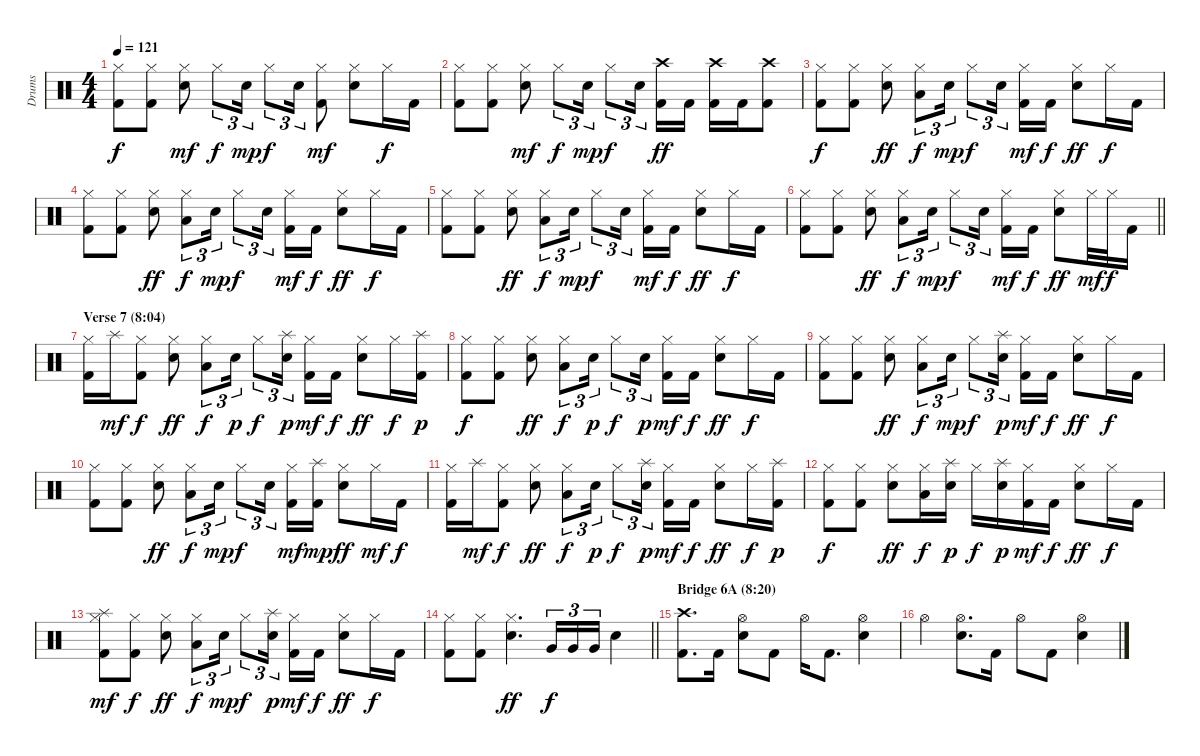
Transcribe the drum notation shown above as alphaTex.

\track ("Drums" "Drums") {instrument percussion}
\staff {score}
\articulation defaults
\ts (4 4)
\tempo 121
\clef neutral
\ks c
("Hi-Hat (closed)" "Kick (hit) 2").8{dy f} ("Hi-Hat (closed)" "Kick (hit) 2").8 ("Hi-Hat (closed)" "Electric Snare (hit)").8{dy mf} "Hi-Hat (closed)".8{tu (3 2) dy f} "Electric Snare (hit)".16{tu (3 2) dy mp} "Hi-Hat (closed)".8{tu (3 2) dy f} "Electric Snare (hit)".16{tu (3 2)} ("Hi-Hat (closed)" "Kick (hit) 2").8{dy mf} ("Hi-Hat (closed)" "Electric Snare (hit)").8 "Hi-Hat (closed)".16{dy f} "Kick (hit) 2".16 |
("Hi-Hat (closed)" "Kick (hit) 2").8 ("Hi-Hat (closed)" "Kick (hit) 2").8 ("Hi-Hat (closed)" "Electric Snare (hit)").8{dy mf} "Hi-Hat (closed)".8{tu (3 2) dy f} "Electric Snare (hit)".16{tu (3 2) dy mp} "Hi-Hat (closed)".8{tu (3 2) dy f} "Electric Snare (hit)".16{tu (3 2) beam splitsecondary} ("Crash high (hit)" "Kick (hit) 2").16{dy ff volume 16} "Kick (hit) 2".16 ("Crash high (hit)" "Kick (hit) 2").16 "Kick (hit) 2".16 ("Crash high (hit)" "Kick (hit) 2").8 |
("Hi-Hat (closed)" "Kick (hit) 2").8{dy f volume 8} ("Hi-Hat (closed)" "Kick (hit) 2").8 ("Hi-Hat (closed)" "Electric Snare (hit)").8{dy ff} ("Hi-Hat (closed)" "Low Tom (hit)").8{tu (3 2) dy f} "Electric Snare (hit)".16{tu (3 2) dy mp} "Hi-Hat (closed)".8{tu (3 2) dy f} "Electric Snare (hit)".16{tu (3 2) beam splitsecondary} ("Hi-Hat (closed)" "Kick (hit) 2").16{dy mf} "Kick (hit) 2".16{dy f} ("Hi-Hat (closed)" "Electric Snare (hit)").8{dy ff} "Hi-Hat (closed)".16{dy f} "Kick (hit) 2".16 |
("Hi-Hat (closed)" "Kick (hit) 2").8 ("Hi-Hat (closed)" "Kick (hit) 2").8 ("Hi-Hat (closed)" "Electric Snare (hit)").8{dy ff} ("Hi-Hat (closed)" "Low Tom (hit)").8{tu (3 2) dy f} "Electric Snare (hit)".16{tu (3 2) dy mp} "Hi-Hat (closed)".8{tu (3 2) dy f} "Electric Snare (hit)".16{tu (3 2) beam splitsecondary} ("Hi-Hat (closed)" "Kick (hit) 2").16{dy mf} "Kick (hit) 2".16{dy f} ("Hi-Hat (closed)" "Electric Snare (hit)").8{dy ff} "Hi-Hat (closed)".16{dy f} "Kick (hit) 2".16 |
("Hi-Hat (closed)" "Kick (hit) 2").8 ("Hi-Hat (closed)" "Kick (hit) 2").8 ("Hi-Hat (closed)" "Electric Snare (hit)").8{dy ff} ("Hi-Hat (closed)" "Low Tom (hit)").8{tu (3 2) dy f} "Electric Snare (hit)".16{tu (3 2) dy mp} "Hi-Hat (closed)".8{tu (3 2) dy f} "Electric Snare (hit)".16{tu (3 2) beam splitsecondary} ("Hi-Hat (closed)" "Kick (hit) 2").16{dy mf} "Kick (hit) 2".16{dy f} ("Hi-Hat (closed)" "Electric Snare (hit)").8{dy ff} "Hi-Hat (closed)".16{dy f} "Kick (hit) 2".16 |
\barLineRight lightlight
("Hi-Hat (closed)" "Kick (hit) 2").8 ("Hi-Hat (closed)" "Kick (hit) 2").8 ("Hi-Hat (closed)" "Electric Snare (hit)").8{dy ff} ("Hi-Hat (closed)" "Low Tom (hit)").8{tu (3 2) dy f} "Electric Snare (hit)".16{tu (3 2) dy mp} "Hi-Hat (closed)".8{tu (3 2) dy f} "Electric Snare (hit)".16{tu (3 2) beam splitsecondary} ("Hi-Hat (closed)" "Kick (hit) 2").16{dy mf} "Kick (hit) 2".16{dy f} ("Hi-Hat (closed)" "Electric Snare (hit)").8{dy ff} "Hi-Hat (closed)".32{dy mf} "Hi-Hat (closed)".32{dy f} "Kick (hit) 2".16 |
\section ("" "Verse 7 (8:04)")
("Hi-Hat (closed)" "Kick (hit) 2").16 "Splash (hit)".16{dy mf} ("Hi-Hat (closed)" "Kick (hit) 2").8{dy f} ("Hi-Hat (closed)" "Electric Snare (hit)").8{dy ff} ("Hi-Hat (closed)" "Low Tom (hit)").8{tu (3 2) dy f} "Electric Snare (hit)".16{tu (3 2) dy p} "Hi-Hat (closed)".8{tu (3 2) dy f} ("Splash (hit)" "Electric Snare (hit)").16{tu (3 2) dy p beam splitsecondary} ("Hi-Hat (closed)" "Kick (hit) 2").16{dy mf} "Kick (hit) 2".16{dy f} ("Hi-Hat (closed)" "Electric Snare (hit)").8{dy ff} "Hi-Hat (closed)".16{dy f} ("Splash (hit)" "Kick (hit) 2").16{dy p} |
("Hi-Hat (closed)" "Kick (hit) 2").8{dy f} ("Hi-Hat (closed)" "Kick (hit) 2").8 ("Hi-Hat (closed)" "Electric Snare (hit)").8{dy ff} ("Hi-Hat (closed)" "Low Tom (hit)").8{tu (3 2) dy f} "Electric Snare (hit)".16{tu (3 2) dy p} "Hi-Hat (closed)".8{tu (3 2) dy f} "Electric Snare (hit)".16{tu (3 2) dy p beam splitsecondary} ("Hi-Hat (closed)" "Kick (hit) 2").16{dy mf} "Kick (hit) 2".16{dy f} ("Hi-Hat (closed)" "Electric Snare (hit)").8{dy ff} "Hi-Hat (closed)".16{dy f} "Kick (hit) 2".16 |
("Hi-Hat (closed)" "Kick (hit) 2").8 ("Hi-Hat (closed)" "Kick (hit) 2").8 ("Hi-Hat (closed)" "Electric Snare (hit)").8{dy ff} ("Hi-Hat (closed)" "Low Tom (hit)").8{tu (3 2) dy f} "Electric Snare (hit)".16{tu (3 2) dy mp} "Hi-Hat (closed)".8{tu (3 2) dy f} ("Splash (hit)" "Electric Snare (hit)").16{tu (3 2) dy p beam splitsecondary} ("Hi-Hat (closed)" "Kick (hit) 2").16{dy mf} "Kick (hit) 2".16{dy f} ("Hi-Hat (closed)" "Electric Snare (hit)").8{dy ff} "Hi-Hat (closed)".16{dy f} "Kick (hit) 2".16 |
("Hi-Hat (closed)" "Kick (hit) 2").8 ("Hi-Hat (closed)" "Kick (hit) 2").8 ("Hi-Hat (closed)" "Electric Snare (hit)").8{dy ff} ("Hi-Hat (closed)" "Low Tom (hit)").8{tu (3 2) dy f} "Electric Snare (hit)".16{tu (3 2) dy mp} "Hi-Hat (closed)".8{tu (3 2) dy f} "Electric Snare (hit)".16{tu (3 2) beam splitsecondary} ("Hi-Hat (closed)" "Kick (hit) 2").16{dy mf} ("Splash (hit)" "Kick (hit) 2").16{dy mp} ("Hi-Hat (closed)" "Electric Snare (hit)").8{dy ff} "Hi-Hat (closed)".16{dy mf} "Kick (hit) 2".16{dy f} |
("Hi-Hat (closed)" "Kick (hit) 2").16 "Splash (hit)".16{dy mf} ("Hi-Hat (closed)" "Kick (hit) 2").8{dy f} ("Hi-Hat (closed)" "Electric Snare (hit)").8{dy ff} ("Hi-Hat (closed)" "Low Tom (hit)").8{tu (3 2) dy f} "Electric Snare (hit)".16{tu (3 2) dy p} "Hi-Hat (closed)".8{tu (3 2) dy f} ("Splash (hit)" "Electric Snare (hit)").16{tu (3 2) dy p beam splitsecondary} ("Hi-Hat (closed)" "Kick (hit) 2").16{dy mf} "Kick (hit) 2".16{dy f} ("Hi-Hat (closed)" "Electric Snare (hit)").8{dy ff} "Hi-Hat (closed)".16{dy f} ("Splash (hit)" "Kick (hit) 2").16{dy p} |
("Hi-Hat (closed)" "Kick (hit) 2").8{dy f} ("Hi-Hat (closed)" "Kick (hit) 2").8 ("Hi-Hat (closed)" "Electric Snare (hit)").8{dy ff} ("Hi-Hat (closed)" "Low Tom (hit)").16{dy f} ("Splash (hit)" "Electric Snare (hit)").16{dy p} "Hi-Hat (closed)".16{dy f} ("Splash (hit)" "Electric Snare (hit)").16{dy p} ("Hi-Hat (closed)" "Kick (hit) 2").16{dy mf} "Kick (hit) 2".16{dy f} ("Hi-Hat (closed)" "Electric Snare (hit)").8{dy ff} "Hi-Hat (closed)".16{dy f} "Kick (hit) 2".16 |
("Splash (hit)" "Hi-Hat (closed)" "Kick (hit) 2").8{dy mf} ("Hi-Hat (closed)" "Kick (hit) 2").8{dy f} ("Hi-Hat (closed)" "Electric Snare (hit)").8{dy ff} ("Hi-Hat (closed)" "Low Tom (hit)").8{tu (3 2) dy f} "Electric Snare (hit)".16{tu (3 2) dy mp} "Hi-Hat (closed)".8{tu (3 2) dy f} ("Splash (hit)" "Electric Snare (hit)").16{tu (3 2) dy p beam splitsecondary} ("Hi-Hat (closed)" "Kick (hit) 2").16{dy mf} "Kick (hit) 2".16{dy f} ("Hi-Hat (closed)" "Electric Snare (hit)").8{dy ff} "Hi-Hat (closed)".16{dy f} "Kick (hit) 2".16 |
\barLineRight lightlight
("Hi-Hat (closed)" "Kick (hit) 2").8 ("Hi-Hat (closed)" "Kick (hit) 2").8 ("Hi-Hat (closed)" "Electric Snare (hit)").4{d dy ff} "Very Low Tom (hit)".16{tu (3 2) dy f volume 16} "Very Low Tom (hit)".16{tu (3 2)} "Very Low Tom (hit)".16{tu (3 2)} "Electric Snare (hit)".4 |
\section ("" "Bridge 6A (8:20)")
("Crash high (hit)" "Kick (hit) 2").8{d} "Kick (hit) 2".16 ("Hi-Hat (open)" "Electric Snare (hit)").8 "Kick (hit) 2".8 "Hi-Hat (open)".16 "Kick (hit) 2".8{d} ("Hi-Hat (open)" "Electric Snare (hit)").4 |
"Hi-Hat (open)".4 ("Hi-Hat (open)" "Electric Snare (hit)").8{d} "Kick (hit) 2".16 "Hi-Hat (open)".8 "Kick (hit) 2".8 ("Hi-Hat (open)" "Electric Snare (hit)").4
